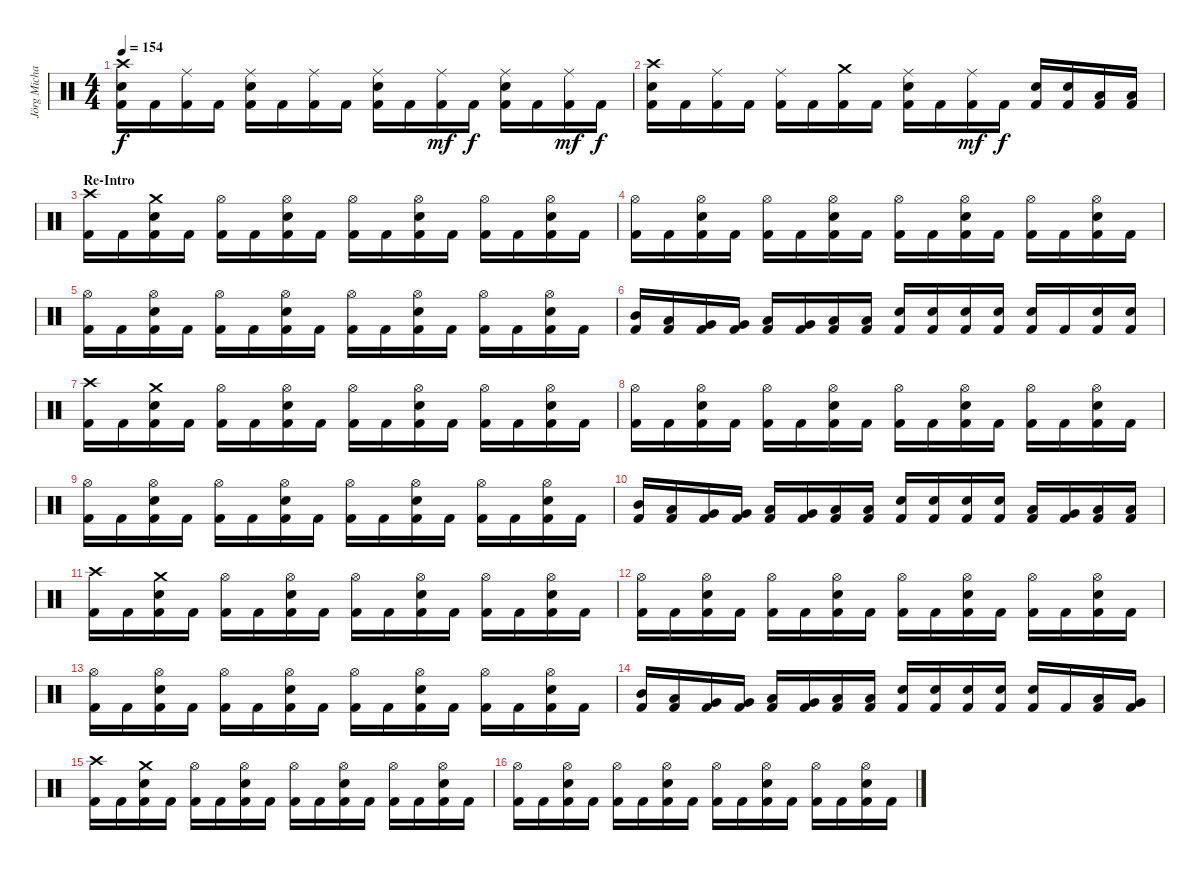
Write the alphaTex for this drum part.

\track ("Jörg Michael - Drums" "Jörg Micha") {instrument percussion}
\staff {score}
\articulation defaults
\ts (4 4)
\tempo 154
\clef neutral
\ks c
("Crash high (hit)" "Electric Snare (hit)" "Kick (hit) 2").16{dy f} "Kick (hit) 2".16 ("Ride (middle)" "Kick (hit) 2").16 "Kick (hit) 2".16 ("Ride (middle)" "Electric Snare (hit)" "Kick (hit) 2").16 "Kick (hit) 2".16 ("Ride (middle)" "Kick (hit) 2").16 "Kick (hit) 2".16 ("Ride (middle)" "Electric Snare (hit)" "Kick (hit) 2").16 "Kick (hit) 2".16 ("Ride (middle)" "Kick (hit) 2").16{dy mf} "Kick (hit) 2".16{dy f} ("Ride (middle)" "Electric Snare (hit)" "Kick (hit) 2").16 "Kick (hit) 2".16 ("Ride (middle)" "Kick (hit) 2").16{dy mf} "Kick (hit) 2".16{dy f} |
("Crash high (hit)" "Electric Snare (hit)" "Kick (hit) 2").16 "Kick (hit) 2".16 ("Ride (middle)" "Kick (hit) 2").16 "Kick (hit) 2".16 ("Ride (middle)" "Kick (hit) 2").16 "Kick (hit) 2".16 ("Crash medium (hit)" "Kick (hit) 2").16 "Kick (hit) 2".16 ("Ride (middle)" "Electric Snare (hit)" "Kick (hit) 2").16 "Kick (hit) 2".16 ("Ride (middle)" "Kick (hit) 2").16{dy mf} "Kick (hit) 2".16{dy f} ("Electric Snare (hit)" "Kick (hit) 2").16 ("Electric Snare (hit)" "Kick (hit) 2").16 ("Low Tom (hit)" "Kick (hit) 2").16 ("Low Tom (hit)" "Kick (hit) 2").16 |
\section ("" "Re-Intro")
("Crash high (hit)" "Kick (hit) 2").16 "Kick (hit) 2".16 ("Crash medium (hit)" "Electric Snare (hit)" "Kick (hit) 2").16 "Kick (hit) 2".16 ("Hi-Hat (open)" "Kick (hit) 2").16 "Kick (hit) 2".16 ("Hi-Hat (open)" "Electric Snare (hit)" "Kick (hit) 2").16 "Kick (hit) 2".16 ("Hi-Hat (open)" "Kick (hit) 2").16 "Kick (hit) 2".16 ("Hi-Hat (open)" "Electric Snare (hit)" "Kick (hit) 2").16 "Kick (hit) 2".16 ("Hi-Hat (open)" "Kick (hit) 2").16 "Kick (hit) 2".16 ("Hi-Hat (open)" "Electric Snare (hit)" "Kick (hit) 2").16 "Kick (hit) 2".16 |
("Hi-Hat (open)" "Kick (hit) 2").16 "Kick (hit) 2".16 ("Hi-Hat (open)" "Electric Snare (hit)" "Kick (hit) 2").16 "Kick (hit) 2".16 ("Hi-Hat (open)" "Kick (hit) 2").16 "Kick (hit) 2".16 ("Hi-Hat (open)" "Electric Snare (hit)" "Kick (hit) 2").16 "Kick (hit) 2".16 ("Hi-Hat (open)" "Kick (hit) 2").16 "Kick (hit) 2".16 ("Hi-Hat (open)" "Electric Snare (hit)" "Kick (hit) 2").16 "Kick (hit) 2".16 ("Hi-Hat (open)" "Kick (hit) 2").16 "Kick (hit) 2".16 ("Hi-Hat (open)" "Electric Snare (hit)" "Kick (hit) 2").16 "Kick (hit) 2".16 |
("Hi-Hat (open)" "Kick (hit) 2").16 "Kick (hit) 2".16 ("Hi-Hat (open)" "Electric Snare (hit)" "Kick (hit) 2").16 "Kick (hit) 2".16 ("Hi-Hat (open)" "Kick (hit) 2").16 "Kick (hit) 2".16 ("Hi-Hat (open)" "Electric Snare (hit)" "Kick (hit) 2").16 "Kick (hit) 2".16 ("Hi-Hat (open)" "Kick (hit) 2").16 "Kick (hit) 2".16 ("Hi-Hat (open)" "Electric Snare (hit)" "Kick (hit) 2").16 "Kick (hit) 2".16 ("Hi-Hat (open)" "Kick (hit) 2").16 "Kick (hit) 2".16 ("Hi-Hat (open)" "Electric Snare (hit)" "Kick (hit) 2").16 "Kick (hit) 2".16 |
("Mid Tom (hit)" "Kick (hit) 2").16 ("Low Tom (hit)" "Kick (hit) 2").16 ("Very Low Tom (hit)" "Kick (hit) 2").16 ("Very Low Tom (hit)" "Kick (hit) 2").16 ("Low Tom (hit)" "Kick (hit) 2").16 ("Very Low Tom (hit)" "Kick (hit) 2").16 ("Low Floor Tom (hit)" "Kick (hit) 2").16 ("Low Floor Tom (hit)" "Kick (hit) 2").16 ("Electric Snare (hit)" "Kick (hit) 2").16 ("Electric Snare (hit)" "Kick (hit) 2").16 ("Electric Snare (hit)" "Kick (hit) 2").16 ("Electric Snare (hit)" "Kick (hit) 2").16 ("Electric Snare (hit)" "Kick (hit) 2").16 "Kick (hit) 2".16 ("Electric Snare (hit)" "Kick (hit) 2").16 ("Electric Snare (hit)" "Kick (hit) 2").16 |
("Crash high (hit)" "Kick (hit) 2").16 "Kick (hit) 2".16 ("Crash medium (hit)" "Electric Snare (hit)" "Kick (hit) 2").16 "Kick (hit) 2".16 ("Hi-Hat (open)" "Kick (hit) 2").16 "Kick (hit) 2".16 ("Hi-Hat (open)" "Electric Snare (hit)" "Kick (hit) 2").16 "Kick (hit) 2".16 ("Hi-Hat (open)" "Kick (hit) 2").16 "Kick (hit) 2".16 ("Hi-Hat (open)" "Electric Snare (hit)" "Kick (hit) 2").16 "Kick (hit) 2".16 ("Hi-Hat (open)" "Kick (hit) 2").16 "Kick (hit) 2".16 ("Hi-Hat (open)" "Electric Snare (hit)" "Kick (hit) 2").16 "Kick (hit) 2".16 |
("Hi-Hat (open)" "Kick (hit) 2").16 "Kick (hit) 2".16 ("Hi-Hat (open)" "Electric Snare (hit)" "Kick (hit) 2").16 "Kick (hit) 2".16 ("Hi-Hat (open)" "Kick (hit) 2").16 "Kick (hit) 2".16 ("Hi-Hat (open)" "Electric Snare (hit)" "Kick (hit) 2").16 "Kick (hit) 2".16 ("Hi-Hat (open)" "Kick (hit) 2").16 "Kick (hit) 2".16 ("Hi-Hat (open)" "Electric Snare (hit)" "Kick (hit) 2").16 "Kick (hit) 2".16 ("Hi-Hat (open)" "Kick (hit) 2").16 "Kick (hit) 2".16 ("Hi-Hat (open)" "Electric Snare (hit)" "Kick (hit) 2").16 "Kick (hit) 2".16 |
("Hi-Hat (open)" "Kick (hit) 2").16 "Kick (hit) 2".16 ("Hi-Hat (open)" "Electric Snare (hit)" "Kick (hit) 2").16 "Kick (hit) 2".16 ("Hi-Hat (open)" "Kick (hit) 2").16 "Kick (hit) 2".16 ("Hi-Hat (open)" "Electric Snare (hit)" "Kick (hit) 2").16 "Kick (hit) 2".16 ("Hi-Hat (open)" "Kick (hit) 2").16 "Kick (hit) 2".16 ("Hi-Hat (open)" "Electric Snare (hit)" "Kick (hit) 2").16 "Kick (hit) 2".16 ("Hi-Hat (open)" "Kick (hit) 2").16 "Kick (hit) 2".16 ("Hi-Hat (open)" "Electric Snare (hit)" "Kick (hit) 2").16 "Kick (hit) 2".16 |
("Mid Tom (hit)" "Kick (hit) 2").16 ("Low Tom (hit)" "Kick (hit) 2").16 ("Very Low Tom (hit)" "Kick (hit) 2").16 ("Very Low Tom (hit)" "Kick (hit) 2").16 ("Low Tom (hit)" "Kick (hit) 2").16 ("Very Low Tom (hit)" "Kick (hit) 2").16 ("Low Floor Tom (hit)" "Kick (hit) 2").16 ("Low Floor Tom (hit)" "Kick (hit) 2").16 ("Electric Snare (hit)" "Kick (hit) 2").16 ("Electric Snare (hit)" "Kick (hit) 2").16 ("Electric Snare (hit)" "Kick (hit) 2").16 ("Electric Snare (hit)" "Kick (hit) 2").16 ("Low Tom (hit)" "Kick (hit) 2").16 ("Very Low Tom (hit)" "Kick (hit) 2").16 ("Low Floor Tom (hit)" "Kick (hit) 2").16 ("Low Floor Tom (hit)" "Kick (hit) 2").16 |
("Crash high (hit)" "Kick (hit) 2").16 "Kick (hit) 2".16 ("Crash medium (hit)" "Electric Snare (hit)" "Kick (hit) 2").16 "Kick (hit) 2".16 ("Hi-Hat (open)" "Kick (hit) 2").16 "Kick (hit) 2".16 ("Hi-Hat (open)" "Electric Snare (hit)" "Kick (hit) 2").16 "Kick (hit) 2".16 ("Hi-Hat (open)" "Kick (hit) 2").16 "Kick (hit) 2".16 ("Hi-Hat (open)" "Electric Snare (hit)" "Kick (hit) 2").16 "Kick (hit) 2".16 ("Hi-Hat (open)" "Kick (hit) 2").16 "Kick (hit) 2".16 ("Hi-Hat (open)" "Electric Snare (hit)" "Kick (hit) 2").16 "Kick (hit) 2".16 |
("Hi-Hat (open)" "Kick (hit) 2").16 "Kick (hit) 2".16 ("Hi-Hat (open)" "Electric Snare (hit)" "Kick (hit) 2").16 "Kick (hit) 2".16 ("Hi-Hat (open)" "Kick (hit) 2").16 "Kick (hit) 2".16 ("Hi-Hat (open)" "Electric Snare (hit)" "Kick (hit) 2").16 "Kick (hit) 2".16 ("Hi-Hat (open)" "Kick (hit) 2").16 "Kick (hit) 2".16 ("Hi-Hat (open)" "Electric Snare (hit)" "Kick (hit) 2").16 "Kick (hit) 2".16 ("Hi-Hat (open)" "Kick (hit) 2").16 "Kick (hit) 2".16 ("Hi-Hat (open)" "Electric Snare (hit)" "Kick (hit) 2").16 "Kick (hit) 2".16 |
("Hi-Hat (open)" "Kick (hit) 2").16 "Kick (hit) 2".16 ("Hi-Hat (open)" "Electric Snare (hit)" "Kick (hit) 2").16 "Kick (hit) 2".16 ("Hi-Hat (open)" "Kick (hit) 2").16 "Kick (hit) 2".16 ("Hi-Hat (open)" "Electric Snare (hit)" "Kick (hit) 2").16 "Kick (hit) 2".16 ("Hi-Hat (open)" "Kick (hit) 2").16 "Kick (hit) 2".16 ("Hi-Hat (open)" "Electric Snare (hit)" "Kick (hit) 2").16 "Kick (hit) 2".16 ("Hi-Hat (open)" "Kick (hit) 2").16 "Kick (hit) 2".16 ("Hi-Hat (open)" "Electric Snare (hit)" "Kick (hit) 2").16 "Kick (hit) 2".16 |
("Mid Tom (hit)" "Kick (hit) 2").16 ("Low Tom (hit)" "Kick (hit) 2").16 ("Very Low Tom (hit)" "Kick (hit) 2").16 ("Very Low Tom (hit)" "Kick (hit) 2").16 ("Low Tom (hit)" "Kick (hit) 2").16 ("Very Low Tom (hit)" "Kick (hit) 2").16 ("Low Floor Tom (hit)" "Kick (hit) 2").16 ("Low Floor Tom (hit)" "Kick (hit) 2").16 ("Electric Snare (hit)" "Kick (hit) 2").16 ("Electric Snare (hit)" "Kick (hit) 2").16 ("Electric Snare (hit)" "Kick (hit) 2").16 ("Electric Snare (hit)" "Kick (hit) 2").16 ("Electric Snare (hit)" "Kick (hit) 2").16 "Kick (hit) 2".16 ("Low Tom (hit)" "Kick (hit) 2").16 ("Very Low Tom (hit)" "Kick (hit) 2").16 |
("Crash high (hit)" "Kick (hit) 2").16 "Kick (hit) 2".16 ("Crash medium (hit)" "Electric Snare (hit)" "Kick (hit) 2").16 "Kick (hit) 2".16 ("Hi-Hat (open)" "Kick (hit) 2").16 "Kick (hit) 2".16 ("Hi-Hat (open)" "Electric Snare (hit)" "Kick (hit) 2").16 "Kick (hit) 2".16 ("Hi-Hat (open)" "Kick (hit) 2").16 "Kick (hit) 2".16 ("Hi-Hat (open)" "Electric Snare (hit)" "Kick (hit) 2").16 "Kick (hit) 2".16 ("Hi-Hat (open)" "Kick (hit) 2").16 "Kick (hit) 2".16 ("Hi-Hat (open)" "Electric Snare (hit)" "Kick (hit) 2").16 "Kick (hit) 2".16 |
("Hi-Hat (open)" "Kick (hit) 2").16 "Kick (hit) 2".16 ("Hi-Hat (open)" "Electric Snare (hit)" "Kick (hit) 2").16 "Kick (hit) 2".16 ("Hi-Hat (open)" "Kick (hit) 2").16 "Kick (hit) 2".16 ("Hi-Hat (open)" "Electric Snare (hit)" "Kick (hit) 2").16 "Kick (hit) 2".16 ("Hi-Hat (open)" "Kick (hit) 2").16 "Kick (hit) 2".16 ("Hi-Hat (open)" "Electric Snare (hit)" "Kick (hit) 2").16 "Kick (hit) 2".16 ("Hi-Hat (open)" "Kick (hit) 2").16 "Kick (hit) 2".16 ("Hi-Hat (open)" "Electric Snare (hit)" "Kick (hit) 2").16 "Kick (hit) 2".16
